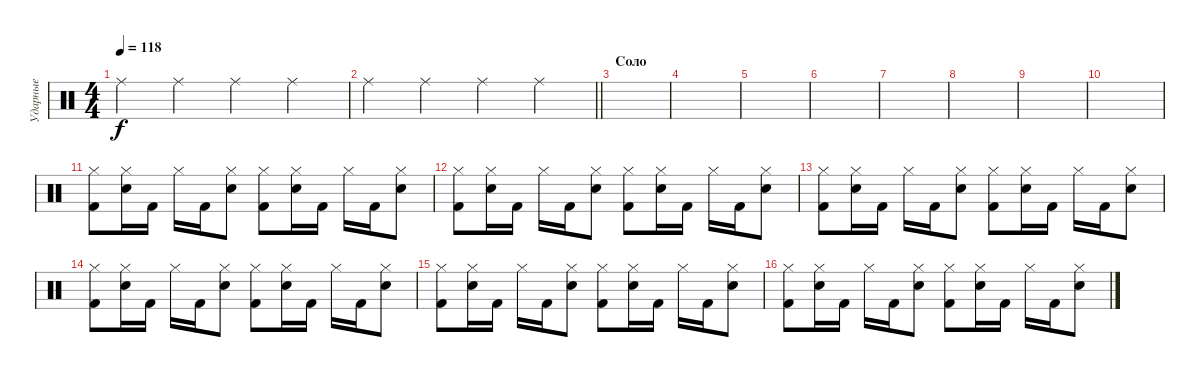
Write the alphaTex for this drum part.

\track ("Ударные" "Ударные") {instrument percussion}
\staff {score}
\articulation defaults
\ts (4 4)
\tempo 118
\clef neutral
\ks c "Ride (middle)".4{dy f} "Ride (middle)".4 "Ride (middle)".4 "Ride (middle)".4
|
\barLineRight lightlight "Ride (middle)".4 "Ride (middle)".4 "Ride (middle)".4 "Ride (middle)".4
|
\section ("" "Соло")
|
|
|
|
|
|
|
|
("Hi-Hat (closed)" "Kick (hit) 2").8 ("Hi-Hat (closed)" "Snare (hit) 2").16 "Kick (hit) 2".16 "Hi-Hat (closed)".16 "Kick (hit) 2".16 ("Hi-Hat (closed)" "Snare (hit) 2").8 ("Hi-Hat (closed)" "Kick (hit) 2").8 ("Hi-Hat (closed)" "Snare (hit) 2").16 "Kick (hit) 2".16 "Hi-Hat (closed)".16 "Kick (hit) 2".16 ("Hi-Hat (closed)" "Snare (hit) 2").8 |
("Hi-Hat (closed)" "Kick (hit) 2").8 ("Hi-Hat (closed)" "Snare (hit) 2").16 "Kick (hit) 2".16 "Hi-Hat (closed)".16 "Kick (hit) 2".16 ("Hi-Hat (closed)" "Snare (hit) 2").8 ("Hi-Hat (closed)" "Kick (hit) 2").8 ("Hi-Hat (closed)" "Snare (hit) 2").16 "Kick (hit) 2".16 "Hi-Hat (closed)".16 "Kick (hit) 2".16 ("Hi-Hat (closed)" "Snare (hit) 2").8 |
("Hi-Hat (closed)" "Kick (hit) 2").8 ("Hi-Hat (closed)" "Snare (hit) 2").16 "Kick (hit) 2".16 "Hi-Hat (closed)".16 "Kick (hit) 2".16 ("Hi-Hat (closed)" "Snare (hit) 2").8 ("Hi-Hat (closed)" "Kick (hit) 2").8 ("Hi-Hat (closed)" "Snare (hit) 2").16 "Kick (hit) 2".16 "Hi-Hat (closed)".16 "Kick (hit) 2".16 ("Hi-Hat (closed)" "Snare (hit) 2").8 |
("Hi-Hat (closed)" "Kick (hit) 2").8 ("Hi-Hat (closed)" "Snare (hit) 2").16 "Kick (hit) 2".16 "Hi-Hat (closed)".16 "Kick (hit) 2".16 ("Hi-Hat (closed)" "Snare (hit) 2").8 ("Hi-Hat (closed)" "Kick (hit) 2").8 ("Hi-Hat (closed)" "Snare (hit) 2").16 "Kick (hit) 2".16 "Hi-Hat (closed)".16 "Kick (hit) 2".16 ("Hi-Hat (closed)" "Snare (hit) 2").8 |
("Hi-Hat (closed)" "Kick (hit) 2").8 ("Hi-Hat (closed)" "Snare (hit) 2").16 "Kick (hit) 2".16 "Hi-Hat (closed)".16 "Kick (hit) 2".16 ("Hi-Hat (closed)" "Snare (hit) 2").8 ("Hi-Hat (closed)" "Kick (hit) 2").8 ("Hi-Hat (closed)" "Snare (hit) 2").16 "Kick (hit) 2".16 "Hi-Hat (closed)".16 "Kick (hit) 2".16 ("Hi-Hat (closed)" "Snare (hit) 2").8 |
("Hi-Hat (closed)" "Kick (hit) 2").8 ("Hi-Hat (closed)" "Snare (hit) 2").16 "Kick (hit) 2".16 "Hi-Hat (closed)".16 "Kick (hit) 2".16 ("Hi-Hat (closed)" "Snare (hit) 2").8 ("Hi-Hat (closed)" "Kick (hit) 2").8 ("Hi-Hat (closed)" "Snare (hit) 2").16 "Kick (hit) 2".16 "Hi-Hat (closed)".16 "Kick (hit) 2".16 ("Hi-Hat (closed)" "Snare (hit) 2").8
